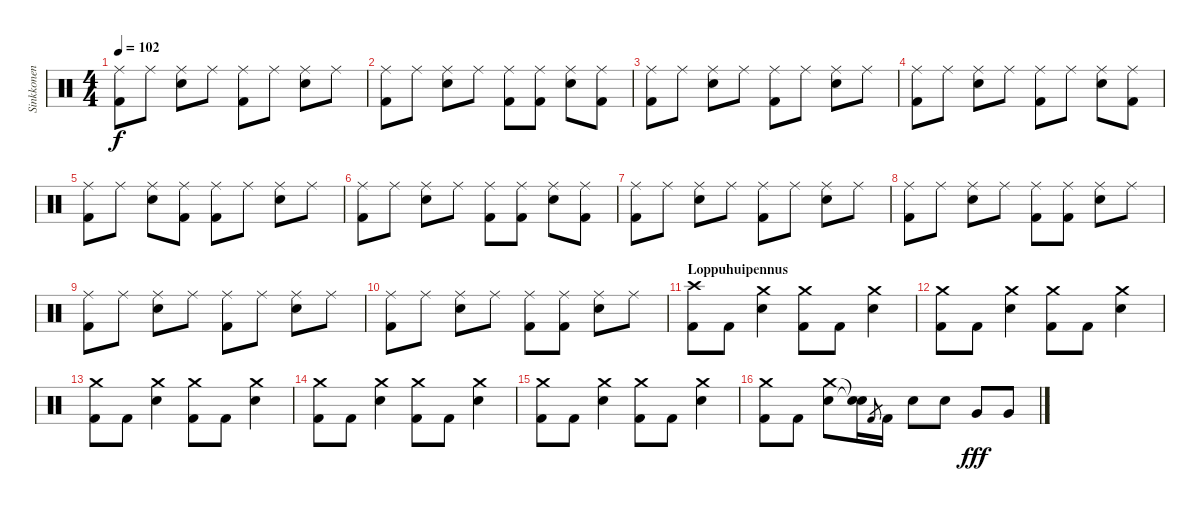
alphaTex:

\track ("Sinkkonen" "Sinkkonen") {instrument percussion}
\staff {score}
\articulation defaults
\ts (4 4)
\tempo 102
\clef neutral
\ks c
("Kick (hit) 2" "Ride (middle)").8{dy f} "Ride (middle)".8 ("Ride (middle)" "Snare (hit) 2").8 "Ride (middle)".8 ("Kick (hit) 2" "Ride (middle)").8 "Ride (middle)".8 ("Ride (middle)" "Snare (hit) 2").8 "Ride (middle)".8 |
("Kick (hit) 2" "Ride (middle)").8 "Ride (middle)".8 ("Ride (middle)" "Snare (hit) 2").8 "Ride (middle)".8 ("Kick (hit) 2" "Ride (middle)").8 ("Kick (hit) 2" "Ride (middle)").8 ("Ride (middle)" "Snare (hit) 2").8 ("Kick (hit) 2" "Ride (middle)").8 |
("Kick (hit) 2" "Ride (middle)").8 "Ride (middle)".8 ("Ride (middle)" "Snare (hit) 2").8 "Ride (middle)".8 ("Kick (hit) 2" "Ride (middle)").8 "Ride (middle)".8 ("Ride (middle)" "Snare (hit) 2").8 "Ride (middle)".8 |
("Kick (hit) 2" "Ride (middle)").8 "Ride (middle)".8 ("Ride (middle)" "Snare (hit) 2").8 "Ride (middle)".8 ("Kick (hit) 2" "Ride (middle)").8 "Ride (middle)".8 ("Ride (middle)" "Snare (hit) 2").8 ("Kick (hit) 2" "Ride (middle)").8 |
("Kick (hit) 2" "Ride (middle)").8 "Ride (middle)".8 ("Ride (middle)" "Snare (hit) 2").8 ("Kick (hit) 2" "Ride (middle)").8 ("Kick (hit) 2" "Ride (middle)").8 "Ride (middle)".8 ("Ride (middle)" "Snare (hit) 2").8 "Ride (middle)".8 |
("Kick (hit) 2" "Ride (middle)").8 "Ride (middle)".8 ("Ride (middle)" "Snare (hit) 2").8 "Ride (middle)".8 ("Kick (hit) 2" "Ride (middle)").8 ("Kick (hit) 2" "Ride (middle)").8 ("Ride (middle)" "Snare (hit) 2").8 ("Kick (hit) 2" "Ride (middle)").8 |
("Kick (hit) 2" "Ride (middle)").8 "Ride (middle)".8 ("Ride (middle)" "Snare (hit) 2").8 "Ride (middle)".8 ("Kick (hit) 2" "Ride (middle)").8 "Ride (middle)".8 ("Ride (middle)" "Snare (hit) 2").8 "Ride (middle)".8 |
("Kick (hit) 2" "Ride (middle)").8 "Ride (middle)".8 ("Ride (middle)" "Snare (hit) 2").8 "Ride (middle)".8 ("Kick (hit) 2" "Ride (middle)").8 ("Kick (hit) 2" "Ride (middle)").8 ("Ride (middle)" "Snare (hit) 2").8 "Ride (middle)".8 |
("Kick (hit) 2" "Ride (middle)").8 "Ride (middle)".8 ("Ride (middle)" "Snare (hit) 2").8 "Ride (middle)".8 ("Kick (hit) 2" "Ride (middle)").8 "Ride (middle)".8 ("Ride (middle)" "Snare (hit) 2").8 "Ride (middle)".8 |
("Kick (hit) 2" "Ride (middle)").8 "Ride (middle)".8 ("Ride (middle)" "Snare (hit) 2").8 "Ride (middle)".8 ("Kick (hit) 2" "Ride (middle)").8 ("Kick (hit) 2" "Ride (middle)").8 ("Ride (middle)" "Snare (hit) 2").8 "Ride (middle)".8 |
\section ("" "Loppuhuipennus")
("Kick (hit) 2" "Crash high (hit)").8 "Kick (hit) 2".8 ("Crash medium (hit)" "Snare (hit) 2").4 ("Kick (hit) 2" "Crash medium (hit)").8 "Kick (hit) 2".8 ("Crash medium (hit)" "Snare (hit) 2").4 |
("Kick (hit) 2" "Crash medium (hit)").8 "Kick (hit) 2".8 ("Crash medium (hit)" "Snare (hit) 2").4 ("Kick (hit) 2" "Crash medium (hit)").8 "Kick (hit) 2".8 ("Crash medium (hit)" "Snare (hit) 2").4 |
("Kick (hit) 2" "Crash medium (hit)").8 "Kick (hit) 2".8 ("Crash medium (hit)" "Snare (hit) 2").4 ("Kick (hit) 2" "Crash medium (hit)").8 "Kick (hit) 2".8 ("Crash medium (hit)" "Snare (hit) 2").4 |
("Kick (hit) 2" "Crash medium (hit)").8 "Kick (hit) 2".8 ("Crash medium (hit)" "Snare (hit) 2").4 ("Kick (hit) 2" "Crash medium (hit)").8 "Kick (hit) 2".8 ("Crash medium (hit)" "Snare (hit) 2").4 |
("Kick (hit) 2" "Crash medium (hit)").8 "Kick (hit) 2".8 ("Crash medium (hit)" "Snare (hit) 2").4 ("Kick (hit) 2" "Crash medium (hit)").8 "Kick (hit) 2".8 ("Crash medium (hit)" "Snare (hit) 2").4 |
("Kick (hit) 2" "Crash medium (hit)").8 "Kick (hit) 2".8 ("Crash medium (hit)" "Snare (hit) 2").8 ("Snare (hit)"{t} "Snare (hit)"{t}).16 "Kick (hit) 2".8{gr} "Kick (hit) 2".16 "Snare (hit) 2".8 "Snare (hit) 2".8 "Very Low Tom (hit)".8{dy fff} "Very Low Tom (hit)".8
